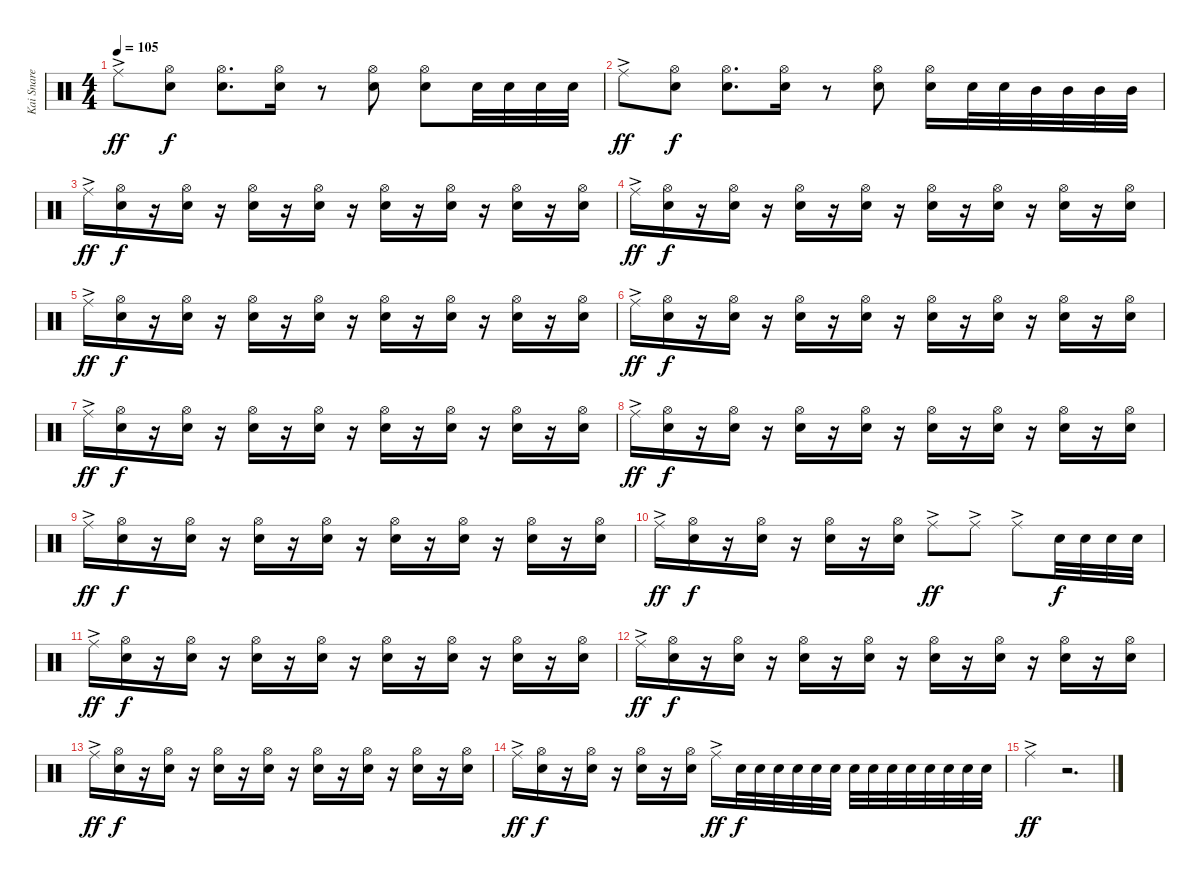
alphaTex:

\track ("Kai Snare" "Kai Snare") {instrument percussion}
\staff {score}
\articulation defaults
\ts (4 4)
\tempo 105
\clef neutral
\ks c "Ride (middle)"{ac}.8{dy ff}
("Hi-Hat (open)" "Snare (hit) 2").8{dy f} ("Hi-Hat (open)" "Snare (hit) 2").8{d} ("Hi-Hat (open)" "Snare (hit) 2").16 r.8 ("Hi-Hat (open)" "Snare (hit) 2").8 ("Hi-Hat (open)" "Snare (hit) 2").8 "Snare (hit) 2".32 "Snare (hit) 2".32 "Snare (hit) 2".32 "Snare (hit) 2".32 |
"Ride (middle)"{ac}.8{dy ff} ("Hi-Hat (open)" "Snare (hit) 2").8{dy f} ("Hi-Hat (open)" "Snare (hit) 2").8{d} ("Hi-Hat (open)" "Snare (hit) 2").16 r.8 ("Hi-Hat (open)" "Snare (hit) 2").8 ("Hi-Hat (open)" "Snare (hit) 2").16 "Snare (hit) 2".32 "Snare (hit) 2".32 "Mid Tom (hit)".32 "Mid Tom (hit)".32 "Mid Tom (hit)".32 "Mid Tom (hit)".32 |
"Ride (middle)"{ac}.16{dy ff} ("Hi-Hat (open)" "Snare (hit) 2").16{dy f} r.16 ("Hi-Hat (open)" "Snare (hit) 2").16 r.16 ("Hi-Hat (open)" "Snare (hit) 2").16 r.16 ("Hi-Hat (open)" "Snare (hit) 2").16 r.16 ("Hi-Hat (open)" "Snare (hit) 2").16 r.16 ("Hi-Hat (open)" "Snare (hit) 2").16 r.16 ("Hi-Hat (open)" "Snare (hit) 2").16 r.16 ("Hi-Hat (open)" "Snare (hit) 2").16 |
"Ride (middle)"{ac}.16{dy ff} ("Hi-Hat (open)" "Snare (hit) 2").16{dy f} r.16 ("Hi-Hat (open)" "Snare (hit) 2").16 r.16 ("Hi-Hat (open)" "Snare (hit) 2").16 r.16 ("Hi-Hat (open)" "Snare (hit) 2").16 r.16 ("Hi-Hat (open)" "Snare (hit) 2").16 r.16 ("Hi-Hat (open)" "Snare (hit) 2").16 r.16 ("Hi-Hat (open)" "Snare (hit) 2").16 r.16 ("Hi-Hat (open)" "Snare (hit) 2").16 |
"Ride (middle)"{ac}.16{dy ff} ("Hi-Hat (open)" "Snare (hit) 2").16{dy f} r.16 ("Hi-Hat (open)" "Snare (hit) 2").16 r.16 ("Hi-Hat (open)" "Snare (hit) 2").16 r.16 ("Hi-Hat (open)" "Snare (hit) 2").16 r.16 ("Hi-Hat (open)" "Snare (hit) 2").16 r.16 ("Hi-Hat (open)" "Snare (hit) 2").16 r.16 ("Hi-Hat (open)" "Snare (hit) 2").16 r.16 ("Hi-Hat (open)" "Snare (hit) 2").16 |
"Ride (middle)"{ac}.16{dy ff} ("Hi-Hat (open)" "Snare (hit) 2").16{dy f} r.16 ("Hi-Hat (open)" "Snare (hit) 2").16 r.16 ("Hi-Hat (open)" "Snare (hit) 2").16 r.16 ("Hi-Hat (open)" "Snare (hit) 2").16 r.16 ("Hi-Hat (open)" "Snare (hit) 2").16 r.16 ("Hi-Hat (open)" "Snare (hit) 2").16 r.16 ("Hi-Hat (open)" "Snare (hit) 2").16 r.16 ("Hi-Hat (open)" "Snare (hit) 2").16 |
"Ride (middle)"{ac}.16{dy ff} ("Hi-Hat (open)" "Snare (hit) 2").16{dy f} r.16 ("Hi-Hat (open)" "Snare (hit) 2").16 r.16 ("Hi-Hat (open)" "Snare (hit) 2").16 r.16 ("Hi-Hat (open)" "Snare (hit) 2").16 r.16 ("Hi-Hat (open)" "Snare (hit) 2").16 r.16 ("Hi-Hat (open)" "Snare (hit) 2").16 r.16 ("Hi-Hat (open)" "Snare (hit) 2").16 r.16 ("Hi-Hat (open)" "Snare (hit) 2").16 |
"Ride (middle)"{ac}.16{dy ff} ("Hi-Hat (open)" "Snare (hit) 2").16{dy f} r.16 ("Hi-Hat (open)" "Snare (hit) 2").16 r.16 ("Hi-Hat (open)" "Snare (hit) 2").16 r.16 ("Hi-Hat (open)" "Snare (hit) 2").16 r.16 ("Hi-Hat (open)" "Snare (hit) 2").16 r.16 ("Hi-Hat (open)" "Snare (hit) 2").16 r.16 ("Hi-Hat (open)" "Snare (hit) 2").16 r.16 ("Hi-Hat (open)" "Snare (hit) 2").16 |
"Ride (middle)"{ac}.16{dy ff} ("Hi-Hat (open)" "Snare (hit) 2").16{dy f} r.16 ("Hi-Hat (open)" "Snare (hit) 2").16 r.16 ("Hi-Hat (open)" "Snare (hit) 2").16 r.16 ("Hi-Hat (open)" "Snare (hit) 2").16 r.16 ("Hi-Hat (open)" "Snare (hit) 2").16 r.16 ("Hi-Hat (open)" "Snare (hit) 2").16 r.16 ("Hi-Hat (open)" "Snare (hit) 2").16 r.16 ("Hi-Hat (open)" "Snare (hit) 2").16 |
"Ride (middle)"{ac}.16{dy ff} ("Hi-Hat (open)" "Snare (hit) 2").16{dy f} r.16 ("Hi-Hat (open)" "Snare (hit) 2").16 r.16 ("Hi-Hat (open)" "Snare (hit) 2").16 r.16 ("Hi-Hat (open)" "Snare (hit) 2").16 "Ride (middle)"{ac}.8{dy ff} "Ride (middle)"{ac}.8 "Ride (middle)"{ac}.8 "Snare (hit) 2".32{dy f} "Snare (hit) 2".32 "Snare (hit) 2".32 "Snare (hit) 2".32 |
"Ride (middle)"{ac}.16{dy ff} ("Hi-Hat (open)" "Snare (hit) 2").16{dy f} r.16 ("Hi-Hat (open)" "Snare (hit) 2").16 r.16 ("Hi-Hat (open)" "Snare (hit) 2").16 r.16 ("Hi-Hat (open)" "Snare (hit) 2").16 r.16 ("Hi-Hat (open)" "Snare (hit) 2").16 r.16 ("Hi-Hat (open)" "Snare (hit) 2").16 r.16 ("Hi-Hat (open)" "Snare (hit) 2").16 r.16 ("Hi-Hat (open)" "Snare (hit) 2").16 |
"Ride (middle)"{ac}.16{dy ff} ("Hi-Hat (open)" "Snare (hit) 2").16{dy f} r.16 ("Hi-Hat (open)" "Snare (hit) 2").16 r.16 ("Hi-Hat (open)" "Snare (hit) 2").16 r.16 ("Hi-Hat (open)" "Snare (hit) 2").16 r.16 ("Hi-Hat (open)" "Snare (hit) 2").16 r.16 ("Hi-Hat (open)" "Snare (hit) 2").16 r.16 ("Hi-Hat (open)" "Snare (hit) 2").16 r.16 ("Hi-Hat (open)" "Snare (hit) 2").16 |
"Ride (middle)"{ac}.16{dy ff} ("Hi-Hat (open)" "Snare (hit) 2").16{dy f} r.16 ("Hi-Hat (open)" "Snare (hit) 2").16 r.16 ("Hi-Hat (open)" "Snare (hit) 2").16 r.16 ("Hi-Hat (open)" "Snare (hit) 2").16 r.16 ("Hi-Hat (open)" "Snare (hit) 2").16 r.16 ("Hi-Hat (open)" "Snare (hit) 2").16 r.16 ("Hi-Hat (open)" "Snare (hit) 2").16 r.16 ("Hi-Hat (open)" "Snare (hit) 2").16 |
"Ride (middle)"{ac}.16{dy ff} ("Hi-Hat (open)" "Snare (hit) 2").16{dy f} r.16 ("Hi-Hat (open)" "Snare (hit) 2").16 r.16 ("Hi-Hat (open)" "Snare (hit) 2").16 r.16 ("Hi-Hat (open)" "Snare (hit) 2").16 "Ride (middle)"{ac}.16{dy ff} "Snare (hit) 2".32{dy f} "Snare (hit) 2".32 "Snare (hit) 2".32 "Snare (hit) 2".32 "Snare (hit) 2".32 "Snare (hit) 2".32 "Snare (hit) 2".32 "Snare (hit) 2".32 "Snare (hit) 2".32 "Snare (hit) 2".32 "Snare (hit) 2".32 "Snare (hit) 2".32 "Snare (hit) 2".32 "Snare (hit) 2".32 |
"Ride (middle)"{ac}.4{dy ff} r.2{d}
